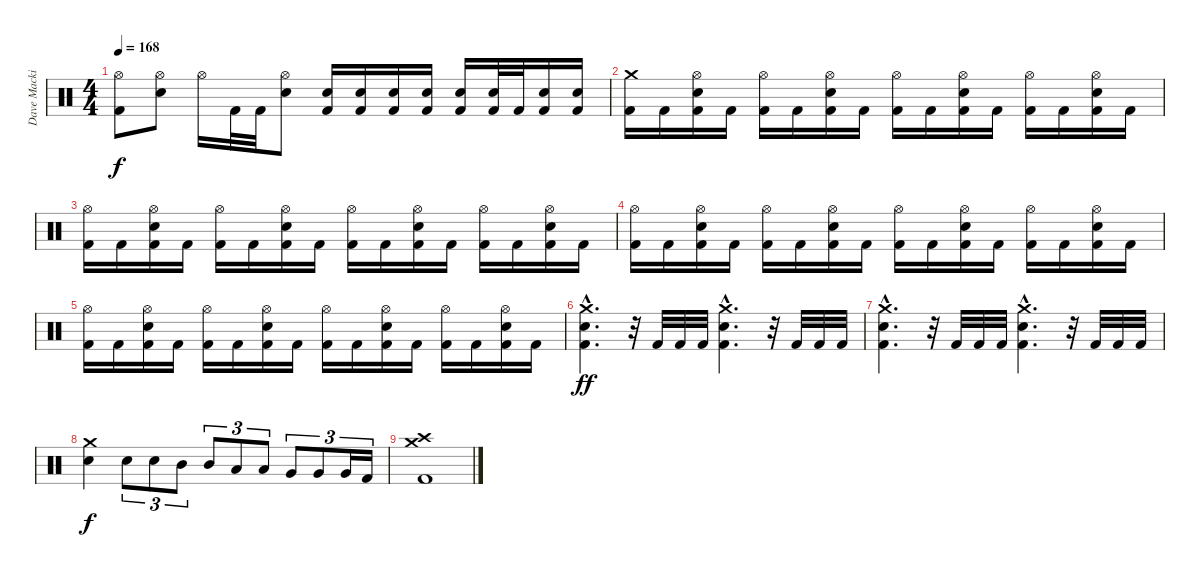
\track ("Dave Mackintosh" "Dave Macki") {instrument percussion}
\staff {score}
\articulation defaults
\ts (4 4)
\tempo 168
\clef neutral
\ks c
("Hi-Hat (open)" "Kick (hit) 2").8{dy f} ("Hi-Hat (open)" "Electric Snare (hit)").8 "Hi-Hat (open)".16 "Kick (hit) 2".32 "Kick (hit) 2".32 ("Hi-Hat (open)" "Electric Snare (hit)").8 ("Electric Snare (hit)" "Kick (hit) 2").16 ("Electric Snare (hit)" "Kick (hit) 2").16 ("Electric Snare (hit)" "Kick (hit) 2").16 ("Electric Snare (hit)" "Kick (hit) 2").16 ("Electric Snare (hit)" "Kick (hit) 2").16 ("Electric Snare (hit)" "Kick (hit) 2").32 "Kick (hit) 2".32 ("Electric Snare (hit)" "Kick (hit) 2").16 ("Electric Snare (hit)" "Kick (hit) 2").16 |
("Crash medium (hit)" "Kick (hit) 2").16 "Kick (hit) 2".16 ("Hi-Hat (open)" "Electric Snare (hit)" "Kick (hit) 2").16 "Kick (hit) 2".16 ("Hi-Hat (open)" "Kick (hit) 2").16 "Kick (hit) 2".16 ("Hi-Hat (open)" "Electric Snare (hit)" "Kick (hit) 2").16 "Kick (hit) 2".16 ("Hi-Hat (open)" "Kick (hit) 2").16 "Kick (hit) 2".16 ("Hi-Hat (open)" "Electric Snare (hit)" "Kick (hit) 2").16 "Kick (hit) 2".16 ("Hi-Hat (open)" "Kick (hit) 2").16 "Kick (hit) 2".16 ("Hi-Hat (open)" "Electric Snare (hit)" "Kick (hit) 2").16 "Kick (hit) 2".16 |
("Hi-Hat (open)" "Kick (hit) 2").16 "Kick (hit) 2".16 ("Hi-Hat (open)" "Electric Snare (hit)" "Kick (hit) 2").16 "Kick (hit) 2".16 ("Hi-Hat (open)" "Kick (hit) 2").16 "Kick (hit) 2".16 ("Hi-Hat (open)" "Electric Snare (hit)" "Kick (hit) 2").16 "Kick (hit) 2".16 ("Hi-Hat (open)" "Kick (hit) 2").16 "Kick (hit) 2".16 ("Hi-Hat (open)" "Electric Snare (hit)" "Kick (hit) 2").16 "Kick (hit) 2".16 ("Hi-Hat (open)" "Kick (hit) 2").16 "Kick (hit) 2".16 ("Hi-Hat (open)" "Electric Snare (hit)" "Kick (hit) 2").16 "Kick (hit) 2".16 |
("Hi-Hat (open)" "Kick (hit) 2").16 "Kick (hit) 2".16 ("Hi-Hat (open)" "Electric Snare (hit)" "Kick (hit) 2").16 "Kick (hit) 2".16 ("Hi-Hat (open)" "Kick (hit) 2").16 "Kick (hit) 2".16 ("Hi-Hat (open)" "Electric Snare (hit)" "Kick (hit) 2").16 "Kick (hit) 2".16 ("Hi-Hat (open)" "Kick (hit) 2").16 "Kick (hit) 2".16 ("Hi-Hat (open)" "Electric Snare (hit)" "Kick (hit) 2").16 "Kick (hit) 2".16 ("Hi-Hat (open)" "Kick (hit) 2").16 "Kick (hit) 2".16 ("Hi-Hat (open)" "Electric Snare (hit)" "Kick (hit) 2").16 "Kick (hit) 2".16 |
("Hi-Hat (open)" "Kick (hit) 2").16 "Kick (hit) 2".16 ("Hi-Hat (open)" "Electric Snare (hit)" "Kick (hit) 2").16 "Kick (hit) 2".16 ("Hi-Hat (open)" "Kick (hit) 2").16 "Kick (hit) 2".16 ("Hi-Hat (open)" "Electric Snare (hit)" "Kick (hit) 2").16 "Kick (hit) 2".16 ("Hi-Hat (open)" "Kick (hit) 2").16 "Kick (hit) 2".16 ("Hi-Hat (open)" "Electric Snare (hit)" "Kick (hit) 2").16 "Kick (hit) 2".16 ("Hi-Hat (open)" "Kick (hit) 2").16 "Kick (hit) 2".16 ("Hi-Hat (open)" "Electric Snare (hit)" "Kick (hit) 2").16 "Kick (hit) 2".16 |
("Crash medium (hit)"{hac} "Electric Snare (hit)"{hac} "Kick (hit) 2"{hac}).4{d dy ff} r.32 "Kick (hit) 2".32 "Kick (hit) 2".32 "Kick (hit) 2".32 ("Crash medium (hit)"{hac} "Electric Snare (hit)"{hac} "Kick (hit) 2"{hac}).4{d} r.32 "Kick (hit) 2".32 "Kick (hit) 2".32 "Kick (hit) 2".32 |
("Crash medium (hit)"{hac} "Electric Snare (hit)"{hac} "Kick (hit) 2"{hac}).4{d} r.32 "Kick (hit) 2".32 "Kick (hit) 2".32 "Kick (hit) 2".32 ("Crash medium (hit)"{hac} "Electric Snare (hit)"{hac} "Kick (hit) 2"{hac}).4{d} r.32 "Kick (hit) 2".32 "Kick (hit) 2".32 "Kick (hit) 2".32 |
("Crash medium (hit)" "Electric Snare (hit)").4{dy f} "Electric Snare (hit)".8{tu (3 2)} "Electric Snare (hit)".8{tu (3 2)} "Mid Tom (hit)".8{tu (3 2)} "Mid Tom (hit)".8{tu (3 2)} "Low Tom (hit)".8{tu (3 2)} "Low Tom (hit)".8{tu (3 2)} "Very Low Tom (hit)".8{tu (3 2)} "Very Low Tom (hit)".8{tu (3 2)} "Very Low Tom (hit)".16{tu (3 2)} "Kick (hit) 2".16{tu (3 2)} |
("Crash medium (hit)" "Crash high (hit)" "Kick (hit) 2").1
